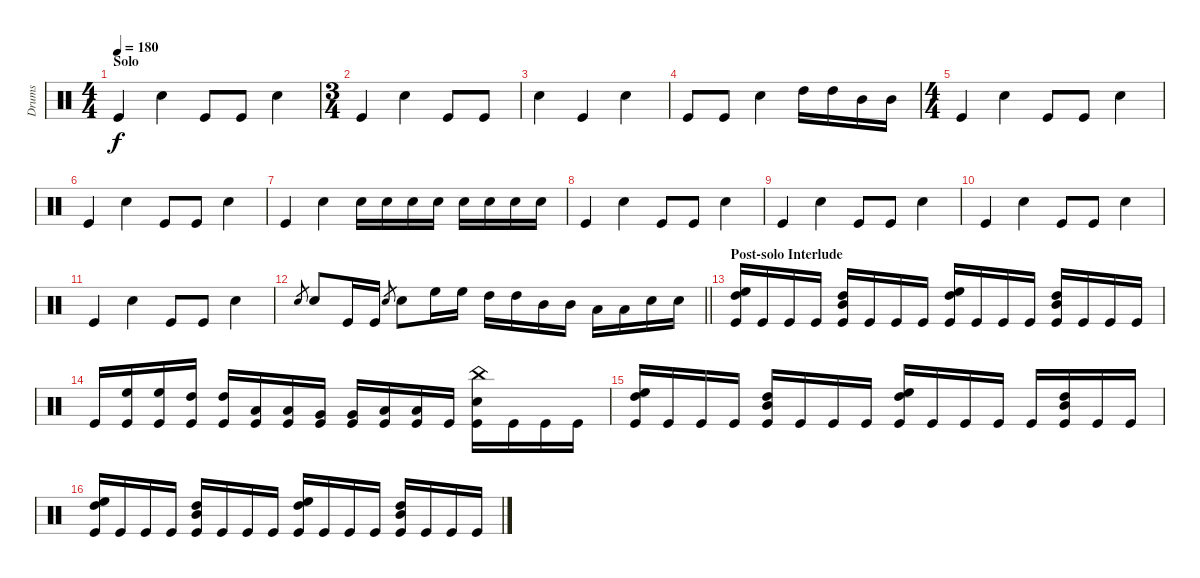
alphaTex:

\track ("Drums" "Drums") {instrument percussion}
\staff {score}
\articulation defaults
\ts (4 4)
\section ("" "Solo")
\tempo 180
\clef neutral
\ks c "Kick (hit)".4{dy f} "Electric Snare (hit)".4 "Kick (hit)".8 "Kick (hit)".8 "Electric Snare (hit)".4
|
\ts (3 4)
"Kick (hit)".4 "Electric Snare (hit)".4 "Kick (hit)".8 "Kick (hit)".8 |
"Electric Snare (hit)".4 "Kick (hit)".4 "Electric Snare (hit)".4 |
"Kick (hit)".8 "Kick (hit)".8 "Electric Snare (hit)".4 "High Tom (hit)".16 "High Tom (hit)".16 "Mid Tom (hit)".16 "Mid Tom (hit)".16 |
\ts (4 4)
"Kick (hit)".4 "Electric Snare (hit)".4 "Kick (hit)".8 "Kick (hit)".8 "Electric Snare (hit)".4 |
"Kick (hit)".4 "Electric Snare (hit)".4 "Kick (hit)".8 "Kick (hit)".8 "Electric Snare (hit)".4 |
"Kick (hit)".4 "Electric Snare (hit)".4 "Electric Snare (hit)".16 "Electric Snare (hit)".16 "Electric Snare (hit)".16 "Electric Snare (hit)".16 "Electric Snare (hit)".16 "Electric Snare (hit)".16 "Electric Snare (hit)".16 "Electric Snare (hit)".16 |
"Kick (hit)".4 "Electric Snare (hit)".4 "Kick (hit)".8 "Kick (hit)".8 "Electric Snare (hit)".4 |
"Kick (hit)".4 "Electric Snare (hit)".4 "Kick (hit)".8 "Kick (hit)".8 "Electric Snare (hit)".4 |
"Kick (hit)".4 "Electric Snare (hit)".4 "Kick (hit)".8 "Kick (hit)".8 "Electric Snare (hit)".4 |
"Kick (hit)".4 "Electric Snare (hit)".4 "Kick (hit)".8 "Kick (hit)".8 "Electric Snare (hit)".4 |
\barLineRight lightlight "Electric Snare (hit)".8{gr} "Electric Snare (hit)".8 "Kick (hit)".16 "Kick (hit)".16 "Electric Snare (hit)".8{gr} "Electric Snare (hit)".8 "High Floor Tom (hit)".16 "High Floor Tom (hit)".16 "High Tom (hit)".16 "High Tom (hit)".16 "Mid Tom (hit)".16 "Mid Tom (hit)".16 "Low Tom (hit)".16 "Low Tom (hit)".16 "Electric Snare (hit)".16 "Electric Snare (hit)".16
|
\section ("" "Post-solo Interlude")
("High Tom (hit)" "High Floor Tom (hit)" "Kick (hit)").16 "Kick (hit)".16 "Kick (hit)".16 "Kick (hit)".16 ("Mid Tom (hit)" "High Tom (hit)" "Kick (hit)").16 "Kick (hit)".16 "Kick (hit)".16 "Kick (hit)".16 ("High Tom (hit)" "High Floor Tom (hit)" "Kick (hit)").16 "Kick (hit)".16 "Kick (hit)".16 "Kick (hit)".16 ("High Tom (hit)" "Mid Tom (hit)" "Kick (hit)").16 "Kick (hit)".16 "Kick (hit)".16 "Kick (hit)".16 |
"Kick (hit)".16 ("High Floor Tom (hit)" "Kick (hit)").16 ("High Floor Tom (hit)" "Kick (hit)").16 ("High Tom (hit)" "Kick (hit)").16 ("High Tom (hit)" "Kick (hit)").16 ("Low Tom (hit)" "Kick (hit)").16 ("Low Tom (hit)" "Kick (hit)").16 ("Very Low Tom (hit)" "Kick (hit)").16 ("Very Low Tom (hit)" "Kick (hit)").16 ("Low Floor Tom (hit)" "Kick (hit)").16 ("Low Floor Tom (hit)" "Kick (hit)").16 "Kick (hit)".16 ("China (hit)" "Electric Snare (hit)" "Kick (hit)").16 "Kick (hit)".16 "Kick (hit)".16 "Kick (hit)".16 |
("High Tom (hit)" "High Floor Tom (hit)" "Kick (hit)").16 "Kick (hit)".16 "Kick (hit)".16 "Kick (hit)".16 ("Mid Tom (hit)" "High Tom (hit)" "Kick (hit)").16 "Kick (hit)".16 "Kick (hit)".16 "Kick (hit)".16 ("High Tom (hit)" "High Floor Tom (hit)" "Kick (hit)").16 "Kick (hit)".16 "Kick (hit)".16 "Kick (hit)".16 "Kick (hit)".16 ("Mid Tom (hit)" "High Tom (hit)" "Kick (hit)").16 "Kick (hit)".16 "Kick (hit)".16 |
("High Tom (hit)" "High Floor Tom (hit)" "Kick (hit)").16 "Kick (hit)".16 "Kick (hit)".16 "Kick (hit)".16 ("Mid Tom (hit)" "High Tom (hit)" "Kick (hit)").16 "Kick (hit)".16 "Kick (hit)".16 "Kick (hit)".16 ("High Tom (hit)" "High Floor Tom (hit)" "Kick (hit)").16 "Kick (hit)".16 "Kick (hit)".16 "Kick (hit)".16 ("High Tom (hit)" "Mid Tom (hit)" "Kick (hit)").16 "Kick (hit)".16 "Kick (hit)".16 "Kick (hit)".16
